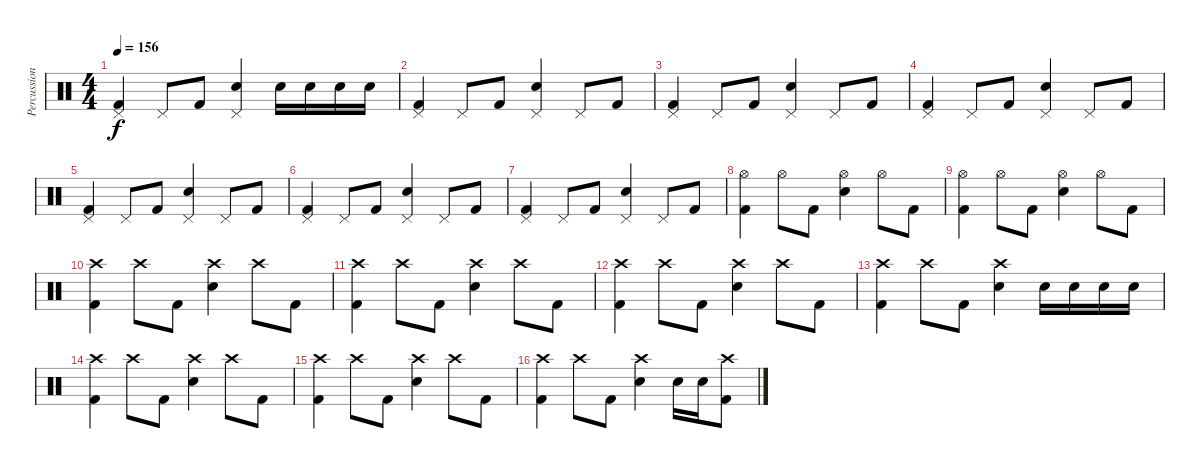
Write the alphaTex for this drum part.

\track ("Percussions" "Percussion") {instrument percussion}
\staff {score}
\articulation defaults
\ts (4 4)
\tempo 156
\clef neutral
\ks c
("Pedal Hi-Hat (hit)" "Kick (hit) 2").4{dy f} "Pedal Hi-Hat (hit)".8 "Kick (hit) 2".8 ("Pedal Hi-Hat (hit)" "Electric Snare (hit)").4 "Electric Snare (hit)".16 "Electric Snare (hit)".16 "Electric Snare (hit)".16 "Electric Snare (hit)".16 |
("Pedal Hi-Hat (hit)" "Kick (hit) 2").4 "Pedal Hi-Hat (hit)".8 "Kick (hit) 2".8 ("Pedal Hi-Hat (hit)" "Electric Snare (hit)").4 "Pedal Hi-Hat (hit)".8 "Kick (hit) 2".8 |
("Pedal Hi-Hat (hit)" "Kick (hit) 2").4 "Pedal Hi-Hat (hit)".8 "Kick (hit) 2".8 ("Pedal Hi-Hat (hit)" "Electric Snare (hit)").4 "Pedal Hi-Hat (hit)".8 "Kick (hit) 2".8 |
("Pedal Hi-Hat (hit)" "Kick (hit) 2").4 "Pedal Hi-Hat (hit)".8 "Kick (hit) 2".8 ("Pedal Hi-Hat (hit)" "Electric Snare (hit)").4 "Pedal Hi-Hat (hit)".8 "Kick (hit) 2".8 |
("Pedal Hi-Hat (hit)" "Kick (hit) 2").4 "Pedal Hi-Hat (hit)".8 "Kick (hit) 2".8 ("Pedal Hi-Hat (hit)" "Electric Snare (hit)").4 "Pedal Hi-Hat (hit)".8 "Kick (hit) 2".8 |
("Pedal Hi-Hat (hit)" "Kick (hit) 2").4 "Pedal Hi-Hat (hit)".8 "Kick (hit) 2".8 ("Pedal Hi-Hat (hit)" "Electric Snare (hit)").4 "Pedal Hi-Hat (hit)".8 "Kick (hit) 2".8 |
("Pedal Hi-Hat (hit)" "Kick (hit) 2").4 "Pedal Hi-Hat (hit)".8 "Kick (hit) 2".8 ("Pedal Hi-Hat (hit)" "Electric Snare (hit)").4 "Pedal Hi-Hat (hit)".8 "Kick (hit) 2".8 |
("Hi-Hat (open)" "Kick (hit) 2").4 "Hi-Hat (open)".8 "Kick (hit) 2".8 ("Hi-Hat (open)" "Electric Snare (hit)").4 "Hi-Hat (open)".8 "Kick (hit) 2".8 |
("Hi-Hat (open)" "Kick (hit) 2").4 "Hi-Hat (open)".8 "Kick (hit) 2".8 ("Hi-Hat (open)" "Electric Snare (hit)").4 "Hi-Hat (open)".8 "Kick (hit) 2".8 |
("Crash high (hit)" "Kick (hit) 2").4 "Crash high (hit)".8 "Kick (hit) 2".8 ("Crash high (hit)" "Electric Snare (hit)").4 "Crash high (hit)".8 "Kick (hit) 2".8 |
("Crash high (hit)" "Kick (hit) 2").4 "Crash high (hit)".8 "Kick (hit) 2".8 ("Crash high (hit)" "Electric Snare (hit)").4 "Crash high (hit)".8 "Kick (hit) 2".8 |
("Crash high (hit)" "Kick (hit) 2").4 "Crash high (hit)".8 "Kick (hit) 2".8 ("Crash high (hit)" "Electric Snare (hit)").4 "Crash high (hit)".8 "Kick (hit) 2".8 |
("Crash high (hit)" "Kick (hit) 2").4 "Crash high (hit)".8 "Kick (hit) 2".8 ("Crash high (hit)" "Electric Snare (hit)").4 "Electric Snare (hit)".16 "Electric Snare (hit)".16 "Electric Snare (hit)".16 "Electric Snare (hit)".16 |
("Crash high (hit)" "Kick (hit) 2").4 "Crash high (hit)".8 "Kick (hit) 2".8 ("Crash high (hit)" "Electric Snare (hit)").4 "Crash high (hit)".8 "Kick (hit) 2".8 |
("Crash high (hit)" "Kick (hit) 2").4 "Crash high (hit)".8 "Kick (hit) 2".8 ("Crash high (hit)" "Electric Snare (hit)").4 "Crash high (hit)".8 "Kick (hit) 2".8 |
("Crash high (hit)" "Kick (hit) 2").4 "Crash high (hit)".8 "Kick (hit) 2".8 ("Crash high (hit)" "Electric Snare (hit)").4 "Electric Snare (hit)".16 "Electric Snare (hit)".16 ("Crash high (hit)" "Kick (hit) 2").8
